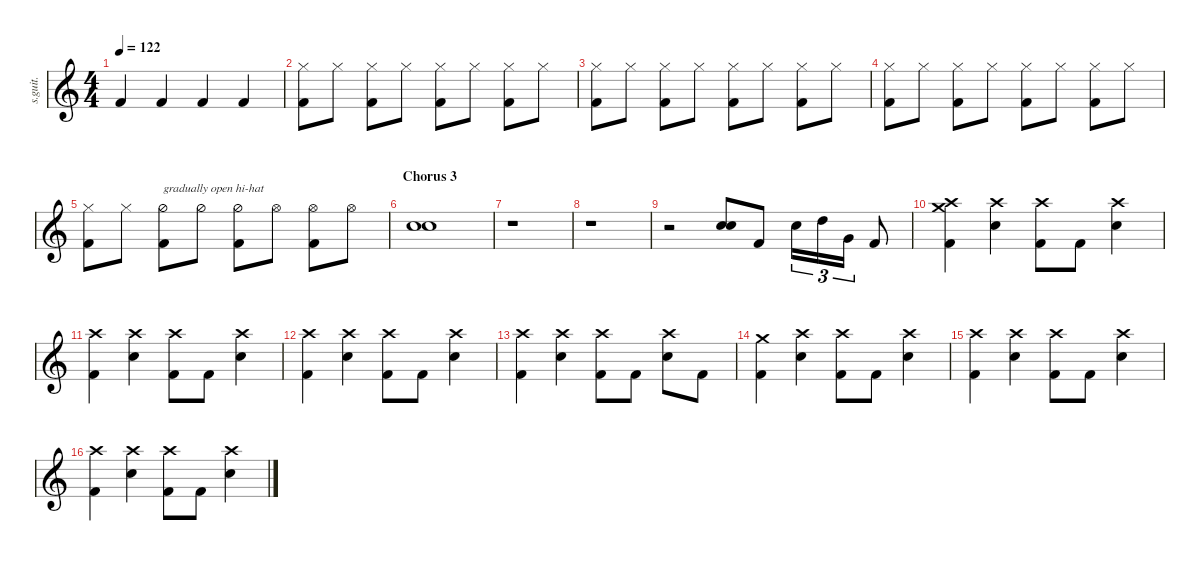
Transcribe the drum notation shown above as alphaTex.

\defaultSystemsLayout 4
\hideDynamics
\bracketExtendMode nobrackets
\track ("Neil Sanderson" "s.guit.") {instrument percussion}
\staff {score}
\articulation defaults
\ts (4 4)
\tempo 122
\clef g2
\ks c "Kick (hit) 2".4{lyrics (0 "") lyrics (1 "") lyrics (2 "") lyrics (3 "") lyrics (4 "") dy f} "Kick (hit) 2".4{lyrics (0 "") lyrics (1 "") lyrics (2 "") lyrics (3 "") lyrics (4 "")} "Kick (hit) 2".4{lyrics (0 "") lyrics (1 "") lyrics (2 "") lyrics (3 "") lyrics (4 "")} "Kick (hit) 2".4{lyrics (0 "") lyrics (1 "") lyrics (2 "") lyrics (3 "") lyrics (4 "")}
|
("Hi-Hat (closed)" "Kick (hit) 2").8{lyrics (0 "") lyrics (1 "") lyrics (2 "") lyrics (3 "") lyrics (4 "")} "Hi-Hat (closed)".8{lyrics (0 "") lyrics (1 "") lyrics (2 "") lyrics (3 "") lyrics (4 "")} ("Hi-Hat (closed)" "Kick (hit) 2").8{lyrics (0 "") lyrics (1 "") lyrics (2 "") lyrics (3 "") lyrics (4 "")} "Hi-Hat (closed)".8{lyrics (0 "") lyrics (1 "") lyrics (2 "") lyrics (3 "") lyrics (4 "")} ("Hi-Hat (closed)" "Kick (hit) 2").8{lyrics (0 "") lyrics (1 "") lyrics (2 "") lyrics (3 "") lyrics (4 "")} "Hi-Hat (closed)".8{lyrics (0 "") lyrics (1 "") lyrics (2 "") lyrics (3 "") lyrics (4 "")} ("Hi-Hat (closed)" "Kick (hit) 2").8{lyrics (0 "") lyrics (1 "") lyrics (2 "") lyrics (3 "") lyrics (4 "")} "Hi-Hat (closed)".8{lyrics (0 "") lyrics (1 "") lyrics (2 "") lyrics (3 "") lyrics (4 "")} |
("Hi-Hat (closed)" "Kick (hit) 2").8{lyrics (0 "") lyrics (1 "") lyrics (2 "") lyrics (3 "") lyrics (4 "")} "Hi-Hat (closed)".8{lyrics (0 "") lyrics (1 "") lyrics (2 "") lyrics (3 "") lyrics (4 "")} ("Hi-Hat (closed)" "Kick (hit) 2").8{lyrics (0 "") lyrics (1 "") lyrics (2 "") lyrics (3 "") lyrics (4 "")} "Hi-Hat (closed)".8{lyrics (0 "") lyrics (1 "") lyrics (2 "") lyrics (3 "") lyrics (4 "")} ("Hi-Hat (closed)" "Kick (hit) 2").8{lyrics (0 "") lyrics (1 "") lyrics (2 "") lyrics (3 "") lyrics (4 "")} "Hi-Hat (closed)".8{lyrics (0 "") lyrics (1 "") lyrics (2 "") lyrics (3 "") lyrics (4 "")} ("Hi-Hat (closed)" "Kick (hit) 2").8{lyrics (0 "") lyrics (1 "") lyrics (2 "") lyrics (3 "") lyrics (4 "")} "Hi-Hat (closed)".8{lyrics (0 "") lyrics (1 "") lyrics (2 "") lyrics (3 "") lyrics (4 "")} |
("Hi-Hat (closed)" "Kick (hit) 2").8{lyrics (0 "") lyrics (1 "") lyrics (2 "") lyrics (3 "") lyrics (4 "")} "Hi-Hat (closed)".8{lyrics (0 "") lyrics (1 "") lyrics (2 "") lyrics (3 "") lyrics (4 "")} ("Hi-Hat (closed)" "Kick (hit) 2").8{lyrics (0 "") lyrics (1 "") lyrics (2 "") lyrics (3 "") lyrics (4 "")} "Hi-Hat (closed)".8{lyrics (0 "") lyrics (1 "") lyrics (2 "") lyrics (3 "") lyrics (4 "")} ("Hi-Hat (closed)" "Kick (hit) 2").8{lyrics (0 "") lyrics (1 "") lyrics (2 "") lyrics (3 "") lyrics (4 "")} "Hi-Hat (closed)".8{lyrics (0 "") lyrics (1 "") lyrics (2 "") lyrics (3 "") lyrics (4 "")} ("Hi-Hat (closed)" "Kick (hit) 2").8{lyrics (0 "") lyrics (1 "") lyrics (2 "") lyrics (3 "") lyrics (4 "")} "Hi-Hat (closed)".8{lyrics (0 "") lyrics (1 "") lyrics (2 "") lyrics (3 "") lyrics (4 "")} |
("Hi-Hat (closed)" "Kick (hit) 2").8{lyrics (0 "") lyrics (1 "") lyrics (2 "") lyrics (3 "") lyrics (4 "")} "Hi-Hat (closed)".8{lyrics (0 "") lyrics (1 "") lyrics (2 "") lyrics (3 "") lyrics (4 "")} ("Hi-Hat (half)" "Kick (hit) 2").8{txt "gradually open hi-hat" lyrics (0 "") lyrics (1 "") lyrics (2 "") lyrics (3 "") lyrics (4 "")} "Hi-Hat (half)".8{lyrics (0 "") lyrics (1 "") lyrics (2 "") lyrics (3 "") lyrics (4 "") dy p} ("Hi-Hat (half)" "Kick (hit) 2").8{lyrics (0 "") lyrics (1 "") lyrics (2 "") lyrics (3 "") lyrics (4 "") dy f} "Hi-Hat (open)".8{lyrics (0 "") lyrics (1 "") lyrics (2 "") lyrics (3 "") lyrics (4 "") dy mp} ("Hi-Hat (open)" "Kick (hit) 2").8{lyrics (0 "") lyrics (1 "") lyrics (2 "") lyrics (3 "") lyrics (4 "") dy f} "Hi-Hat (open)".8{lyrics (0 "") lyrics (1 "") lyrics (2 "") lyrics (3 "") lyrics (4 "") dy mf} |
\section ("" "Chorus 3")
("Snare (hit) 2" "Snare (hit) 2").1{bd 30 lyrics (0 "") lyrics (1 "") lyrics (2 "") lyrics (3 "") lyrics (4 "") dy f} |
r.1 |
r.1 |
r.2 ("Snare (hit) 2" "Snare (hit) 2").8{bd 30 lyrics (0 "") lyrics (1 "") lyrics (2 "") lyrics (3 "") lyrics (4 "")} "Kick (hit) 2".8{lyrics (0 "") lyrics (1 "") lyrics (2 "") lyrics (3 "") lyrics (4 "")} "Snare (hit) 2".16{tu (3 2) lyrics (0 "") lyrics (1 "") lyrics (2 "") lyrics (3 "") lyrics (4 "")} "High Tom (hit)".16{tu (3 2) lyrics (0 "") lyrics (1 "") lyrics (2 "") lyrics (3 "") lyrics (4 "")} "Very Low Tom (hit)".16{tu (3 2) lyrics (0 "") lyrics (1 "") lyrics (2 "") lyrics (3 "") lyrics (4 "")} "Kick (hit) 2".8{lyrics (0 "") lyrics (1 "") lyrics (2 "") lyrics (3 "") lyrics (4 "")} |
("Crash high (hit)" "Crash medium (hit)" "Kick (hit) 2").4{lyrics (0 "") lyrics (1 "") lyrics (2 "") lyrics (3 "") lyrics (4 "")} ("Crash high (hit)" "Snare (hit) 2").4{lyrics (0 "") lyrics (1 "") lyrics (2 "") lyrics (3 "") lyrics (4 "")} ("Crash high (hit)" "Kick (hit) 2").8{lyrics (0 "") lyrics (1 "") lyrics (2 "") lyrics (3 "") lyrics (4 "")} "Kick (hit) 2".8{lyrics (0 "") lyrics (1 "") lyrics (2 "") lyrics (3 "") lyrics (4 "")} ("Crash high (hit)" "Snare (hit) 2").4{lyrics (0 "") lyrics (1 "") lyrics (2 "") lyrics (3 "") lyrics (4 "")} |
("Crash high (hit)" "Kick (hit) 2").4{lyrics (0 "") lyrics (1 "") lyrics (2 "") lyrics (3 "") lyrics (4 "")} ("Crash high (hit)" "Snare (hit) 2").4{lyrics (0 "") lyrics (1 "") lyrics (2 "") lyrics (3 "") lyrics (4 "")} ("Crash high (hit)" "Kick (hit) 2").8{lyrics (0 "") lyrics (1 "") lyrics (2 "") lyrics (3 "") lyrics (4 "")} "Kick (hit) 2".8{lyrics (0 "") lyrics (1 "") lyrics (2 "") lyrics (3 "") lyrics (4 "")} ("Crash high (hit)" "Snare (hit) 2").4{lyrics (0 "") lyrics (1 "") lyrics (2 "") lyrics (3 "") lyrics (4 "")} |
("Crash high (hit)" "Kick (hit) 2").4{lyrics (0 "") lyrics (1 "") lyrics (2 "") lyrics (3 "") lyrics (4 "")} ("Crash high (hit)" "Snare (hit) 2").4{lyrics (0 "") lyrics (1 "") lyrics (2 "") lyrics (3 "") lyrics (4 "")} ("Crash high (hit)" "Kick (hit) 2").8{lyrics (0 "") lyrics (1 "") lyrics (2 "") lyrics (3 "") lyrics (4 "")} "Kick (hit) 2".8{lyrics (0 "") lyrics (1 "") lyrics (2 "") lyrics (3 "") lyrics (4 "")} ("Crash high (hit)" "Snare (hit) 2").4{lyrics (0 "") lyrics (1 "") lyrics (2 "") lyrics (3 "") lyrics (4 "")} |
("Crash high (hit)" "Kick (hit) 2").4{lyrics (0 "") lyrics (1 "") lyrics (2 "") lyrics (3 "") lyrics (4 "")} ("Crash high (hit)" "Snare (hit) 2").4{lyrics (0 "") lyrics (1 "") lyrics (2 "") lyrics (3 "") lyrics (4 "")} ("Crash high (hit)" "Kick (hit) 2").8{lyrics (0 "") lyrics (1 "") lyrics (2 "") lyrics (3 "") lyrics (4 "")} "Kick (hit) 2".8{lyrics (0 "") lyrics (1 "") lyrics (2 "") lyrics (3 "") lyrics (4 "")} ("Crash high (hit)" "Snare (hit) 2").8{lyrics (0 "") lyrics (1 "") lyrics (2 "") lyrics (3 "") lyrics (4 "")} "Kick (hit) 2".8{lyrics (0 "") lyrics (1 "") lyrics (2 "") lyrics (3 "") lyrics (4 "")} |
("Crash medium (hit)" "Kick (hit) 2").4{lyrics (0 "") lyrics (1 "") lyrics (2 "") lyrics (3 "") lyrics (4 "")} ("Crash high (hit)" "Snare (hit) 2").4{lyrics (0 "") lyrics (1 "") lyrics (2 "") lyrics (3 "") lyrics (4 "")} ("Crash high (hit)" "Kick (hit) 2").8{lyrics (0 "") lyrics (1 "") lyrics (2 "") lyrics (3 "") lyrics (4 "")} "Kick (hit) 2".8{lyrics (0 "") lyrics (1 "") lyrics (2 "") lyrics (3 "") lyrics (4 "")} ("Crash high (hit)" "Snare (hit) 2").4{lyrics (0 "") lyrics (1 "") lyrics (2 "") lyrics (3 "") lyrics (4 "")} |
("Crash high (hit)" "Kick (hit) 2").4{lyrics (0 "") lyrics (1 "") lyrics (2 "") lyrics (3 "") lyrics (4 "")} ("Crash high (hit)" "Snare (hit) 2").4{lyrics (0 "") lyrics (1 "") lyrics (2 "") lyrics (3 "") lyrics (4 "")} ("Crash high (hit)" "Kick (hit) 2").8{lyrics (0 "") lyrics (1 "") lyrics (2 "") lyrics (3 "") lyrics (4 "")} "Kick (hit) 2".8{lyrics (0 "") lyrics (1 "") lyrics (2 "") lyrics (3 "") lyrics (4 "")} ("Crash high (hit)" "Snare (hit) 2").4{lyrics (0 "") lyrics (1 "") lyrics (2 "") lyrics (3 "") lyrics (4 "")} |
("Crash high (hit)" "Kick (hit) 2").4{lyrics (0 "") lyrics (1 "") lyrics (2 "") lyrics (3 "") lyrics (4 "")} ("Crash high (hit)" "Snare (hit) 2").4{lyrics (0 "") lyrics (1 "") lyrics (2 "") lyrics (3 "") lyrics (4 "")} ("Crash high (hit)" "Kick (hit) 2").8{lyrics (0 "") lyrics (1 "") lyrics (2 "") lyrics (3 "") lyrics (4 "")} "Kick (hit) 2".8{lyrics (0 "") lyrics (1 "") lyrics (2 "") lyrics (3 "") lyrics (4 "")} ("Crash high (hit)" "Snare (hit) 2").4{lyrics (0 "") lyrics (1 "") lyrics (2 "") lyrics (3 "") lyrics (4 "")}
